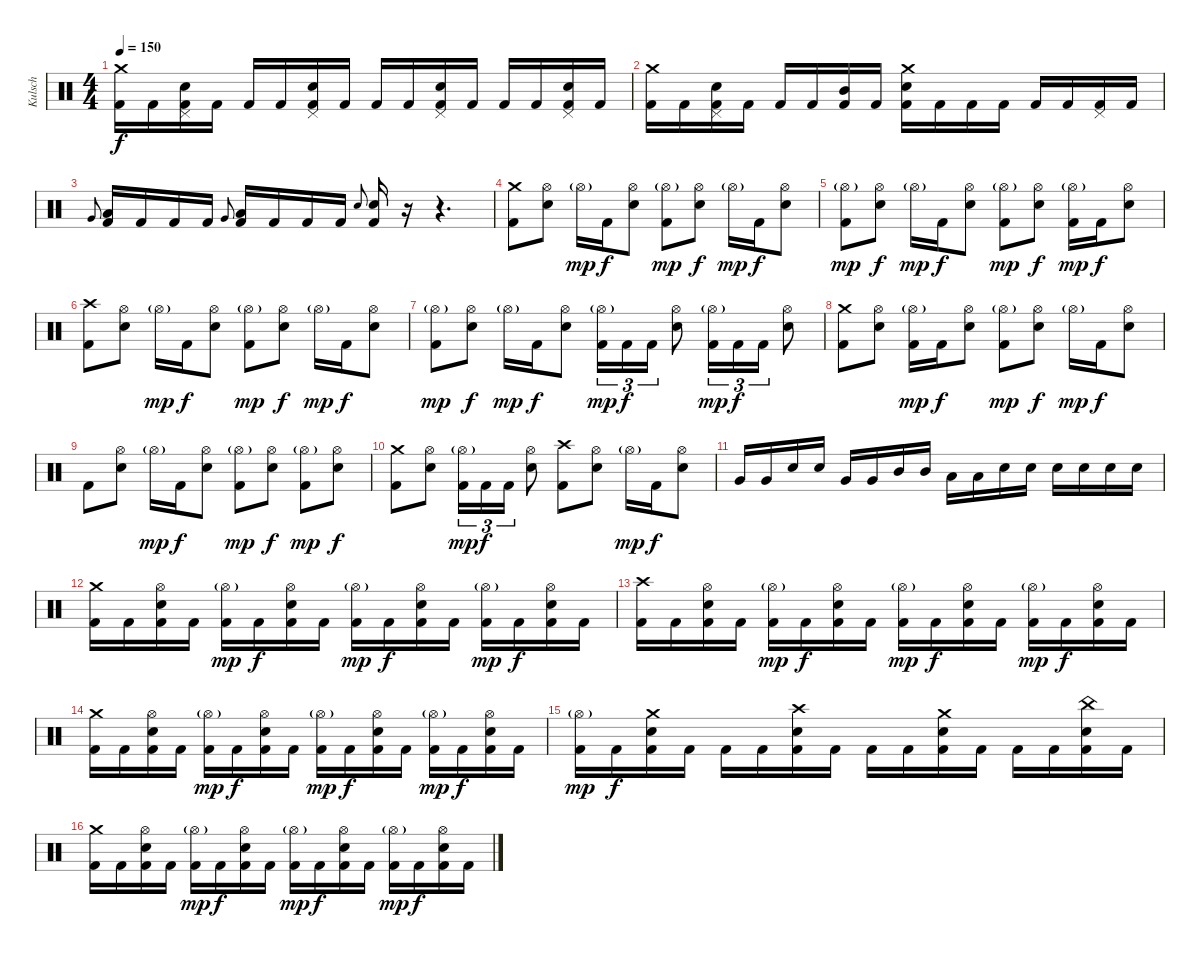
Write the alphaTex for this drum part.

\track ("Kulsch" "Kulsch") {instrument percussion}
\staff {score}
\articulation defaults
\ts (4 4)
\tempo 150
\clef neutral
\ks c
("Crash medium (hit)" "Kick (hit) 2").16{dy f} "Kick (hit) 2".16 ("Pedal Hi-Hat (hit)" "Snare (hit) 2" "Kick (hit) 2").16 "Kick (hit) 2".16 "Kick (hit) 2".16 "Kick (hit) 2".16 ("Pedal Hi-Hat (hit)" "Snare (hit) 2" "Kick (hit) 2").16 "Kick (hit) 2".16 "Kick (hit) 2".16 "Kick (hit) 2".16 ("Pedal Hi-Hat (hit)" "Snare (hit) 2" "Kick (hit) 2").16 "Kick (hit) 2".16 "Kick (hit) 2".16 "Kick (hit) 2".16 ("Pedal Hi-Hat (hit)" "Snare (hit) 2" "Kick (hit) 2").16 "Kick (hit) 2".16 |
("Crash medium (hit)" "Kick (hit) 2").16 "Kick (hit) 2".16 ("Pedal Hi-Hat (hit)" "Snare (hit) 2" "Kick (hit) 2").16 "Kick (hit) 2".16 "Kick (hit) 2".16 "Kick (hit) 2".16 ("Mid Tom (hit)" "Kick (hit) 2").16 "Kick (hit) 2".16 ("Crash medium (hit)" "Snare (hit) 2" "Kick (hit) 2").16 "Kick (hit) 2".16 "Kick (hit) 2".16 "Kick (hit) 2".16 "Kick (hit) 2".16 "Kick (hit) 2".16 ("Pedal Hi-Hat (hit)" "Kick (hit) 2").16 "Kick (hit) 2".16 |
"Very Low Tom (hit)".8{gr onbeat} ("Low Tom (hit)" "Kick (hit) 2").16 "Kick (hit) 2".16 "Kick (hit) 2".16 "Kick (hit) 2".16 "Very Low Tom (hit)".8{gr onbeat} ("Low Tom (hit)" "Kick (hit) 2").16 "Kick (hit) 2".16 "Kick (hit) 2".16 "Kick (hit) 2".16 "Snare (hit) 2".8{gr onbeat} ("Snare (hit) 2" "Kick (hit) 2").16 r.16 r.4{d} |
("Crash medium (hit)" "Kick (hit) 2").8 ("Hi-Hat (open)" "Snare (hit) 2").8 "Hi-Hat (open)"{g}.16{dy mp} "Kick (hit) 2".16{dy f} ("Hi-Hat (open)" "Snare (hit) 2").8 ("Hi-Hat (open)"{g} "Kick (hit) 2").8{dy mp} ("Hi-Hat (open)" "Snare (hit) 2").8{dy f} "Hi-Hat (open)"{g}.16{dy mp} "Kick (hit) 2".16{dy f} ("Hi-Hat (open)" "Snare (hit) 2").8 |
("Hi-Hat (open)"{g} "Kick (hit) 2").8{dy mp} ("Hi-Hat (open)" "Snare (hit) 2").8{dy f} "Hi-Hat (open)"{g}.16{dy mp} "Kick (hit) 2".16{dy f} ("Hi-Hat (open)" "Snare (hit) 2").8 ("Hi-Hat (open)"{g} "Kick (hit) 2").8{dy mp} ("Hi-Hat (open)" "Snare (hit) 2").8{dy f} ("Hi-Hat (open)"{g} "Kick (hit) 2").16{dy mp} "Kick (hit) 2".16{dy f} ("Hi-Hat (open)" "Snare (hit) 2").8 |
("Crash high (hit)" "Kick (hit) 2").8 ("Hi-Hat (open)" "Snare (hit) 2").8 "Hi-Hat (open)"{g}.16{dy mp} "Kick (hit) 2".16{dy f} ("Hi-Hat (open)" "Snare (hit) 2").8 ("Hi-Hat (open)"{g} "Kick (hit) 2").8{dy mp} ("Hi-Hat (open)" "Snare (hit) 2").8{dy f} "Hi-Hat (open)"{g}.16{dy mp} "Kick (hit) 2".16{dy f} ("Hi-Hat (open)" "Snare (hit) 2").8 |
("Hi-Hat (open)"{g} "Kick (hit) 2").8{dy mp} ("Hi-Hat (open)" "Snare (hit) 2").8{dy f} "Hi-Hat (open)"{g}.16{dy mp} "Kick (hit) 2".16{dy f} ("Hi-Hat (open)" "Snare (hit) 2").8 ("Hi-Hat (open)"{g} "Kick (hit) 2").16{tu (3 2) dy mp} "Kick (hit) 2".16{tu (3 2) dy f} "Kick (hit) 2".16{tu (3 2)} ("Hi-Hat (open)" "Snare (hit) 2").8 ("Hi-Hat (open)"{g} "Kick (hit) 2").16{tu (3 2) dy mp} "Kick (hit) 2".16{tu (3 2) dy f} "Kick (hit) 2".16{tu (3 2)} ("Hi-Hat (open)" "Snare (hit) 2").8 |
("Crash medium (hit)" "Kick (hit) 2").8 ("Hi-Hat (open)" "Snare (hit) 2").8 ("Hi-Hat (open)"{g} "Kick (hit) 2").16{dy mp} "Kick (hit) 2".16{dy f} ("Hi-Hat (open)" "Snare (hit) 2").8 ("Hi-Hat (open)"{g} "Kick (hit) 2").8{dy mp} ("Hi-Hat (open)" "Snare (hit) 2").8{dy f} "Hi-Hat (open)"{g}.16{dy mp} "Kick (hit) 2".16{dy f} ("Hi-Hat (open)" "Snare (hit) 2").8 |
"Kick (hit) 2".8 ("Hi-Hat (open)" "Snare (hit) 2").8 "Hi-Hat (open)"{g}.16{dy mp} "Kick (hit) 2".16{dy f} ("Hi-Hat (open)" "Snare (hit) 2").8 ("Hi-Hat (open)"{g} "Kick (hit) 2").8{dy mp} ("Hi-Hat (open)" "Snare (hit) 2").8{dy f} ("Hi-Hat (open)"{g} "Kick (hit) 2").8{dy mp} ("Hi-Hat (open)" "Snare (hit) 2").8{dy f} |
("Crash medium (hit)" "Kick (hit) 2").8 ("Hi-Hat (open)" "Snare (hit) 2").8 ("Hi-Hat (open)"{g} "Kick (hit) 2").16{tu (3 2) dy mp} "Kick (hit) 2".16{tu (3 2) dy f} "Kick (hit) 2".16{tu (3 2)} ("Hi-Hat (open)" "Snare (hit) 2").8 ("Crash high (hit)" "Kick (hit) 2").8 ("Hi-Hat (open)" "Snare (hit) 2").8 "Hi-Hat (open)"{g}.16{dy mp} "Kick (hit) 2".16{dy f} ("Hi-Hat (open)" "Snare (hit) 2").8 |
"Very Low Tom (hit)".16 "Very Low Tom (hit)".16 "Snare (hit) 2".16 "Snare (hit) 2".16 "Very Low Tom (hit)".16 "Very Low Tom (hit)".16 "Mid Tom (hit)".16 "Mid Tom (hit)".16 "Low Tom (hit)".16 "Low Tom (hit)".16 "Snare (hit) 2".16 "Snare (hit) 2".16 "Snare (hit) 2".16 "Snare (hit) 2".16 "Snare (hit) 2".16 "Snare (hit) 2".16 |
("Crash medium (hit)" "Kick (hit) 2").16 "Kick (hit) 2".16 ("Hi-Hat (open)" "Snare (hit) 2" "Kick (hit) 2").16 "Kick (hit) 2".16 ("Hi-Hat (open)"{g} "Kick (hit) 2").16{dy mp} "Kick (hit) 2".16{dy f} ("Hi-Hat (open)" "Snare (hit) 2" "Kick (hit) 2").16 "Kick (hit) 2".16 ("Hi-Hat (open)"{g} "Kick (hit) 2").16{dy mp} "Kick (hit) 2".16{dy f} ("Hi-Hat (open)" "Snare (hit) 2" "Kick (hit) 2").16 "Kick (hit) 2".16 ("Hi-Hat (open)"{g} "Kick (hit) 2").16{dy mp} "Kick (hit) 2".16{dy f} ("Hi-Hat (open)" "Snare (hit) 2" "Kick (hit) 2").16 "Kick (hit) 2".16 |
("Crash high (hit)" "Kick (hit) 2").16 "Kick (hit) 2".16 ("Hi-Hat (open)" "Snare (hit) 2" "Kick (hit) 2").16 "Kick (hit) 2".16 ("Hi-Hat (open)"{g} "Kick (hit) 2").16{dy mp} "Kick (hit) 2".16{dy f} ("Hi-Hat (open)" "Snare (hit) 2" "Kick (hit) 2").16 "Kick (hit) 2".16 ("Hi-Hat (open)"{g} "Kick (hit) 2").16{dy mp} "Kick (hit) 2".16{dy f} ("Hi-Hat (open)" "Snare (hit) 2" "Kick (hit) 2").16 "Kick (hit) 2".16 ("Hi-Hat (open)"{g} "Kick (hit) 2").16{dy mp} "Kick (hit) 2".16{dy f} ("Hi-Hat (open)" "Snare (hit) 2" "Kick (hit) 2").16 "Kick (hit) 2".16 |
("Crash medium (hit)" "Kick (hit) 2").16 "Kick (hit) 2".16 ("Hi-Hat (open)" "Snare (hit) 2" "Kick (hit) 2").16 "Kick (hit) 2".16 ("Hi-Hat (open)"{g} "Kick (hit) 2").16{dy mp} "Kick (hit) 2".16{dy f} ("Hi-Hat (open)" "Snare (hit) 2" "Kick (hit) 2").16 "Kick (hit) 2".16 ("Hi-Hat (open)"{g} "Kick (hit) 2").16{dy mp} "Kick (hit) 2".16{dy f} ("Hi-Hat (open)" "Snare (hit) 2" "Kick (hit) 2").16 "Kick (hit) 2".16 ("Hi-Hat (open)"{g} "Kick (hit) 2").16{dy mp} "Kick (hit) 2".16{dy f} ("Hi-Hat (open)" "Snare (hit) 2" "Kick (hit) 2").16 "Kick (hit) 2".16 |
("Hi-Hat (open)"{g} "Kick (hit) 2").16{dy mp} "Kick (hit) 2".16{dy f} ("Crash medium (hit)" "Snare (hit) 2" "Kick (hit) 2").16 "Kick (hit) 2".16 "Kick (hit) 2".16 "Kick (hit) 2".16 ("Crash high (hit)" "Snare (hit) 2" "Kick (hit) 2").16 "Kick (hit) 2".16 "Kick (hit) 2".16 "Kick (hit) 2".16 ("Crash medium (hit)" "Snare (hit) 2" "Kick (hit) 2").16 "Kick (hit) 2".16 "Kick (hit) 2".16 "Kick (hit) 2".16 ("China (hit)" "Snare (hit) 2" "Kick (hit) 2").16 "Kick (hit) 2".16 |
("Crash medium (hit)" "Kick (hit) 2").16 "Kick (hit) 2".16 ("Hi-Hat (open)" "Snare (hit) 2" "Kick (hit) 2").16 "Kick (hit) 2".16 ("Hi-Hat (open)"{g} "Kick (hit) 2").16{dy mp} "Kick (hit) 2".16{dy f} ("Hi-Hat (open)" "Snare (hit) 2" "Kick (hit) 2").16 "Kick (hit) 2".16 ("Hi-Hat (open)"{g} "Kick (hit) 2").16{dy mp} "Kick (hit) 2".16{dy f} ("Hi-Hat (open)" "Snare (hit) 2" "Kick (hit) 2").16 "Kick (hit) 2".16 ("Hi-Hat (open)"{g} "Kick (hit) 2").16{dy mp} "Kick (hit) 2".16{dy f} ("Hi-Hat (open)" "Snare (hit) 2" "Kick (hit) 2").16 "Kick (hit) 2".16
